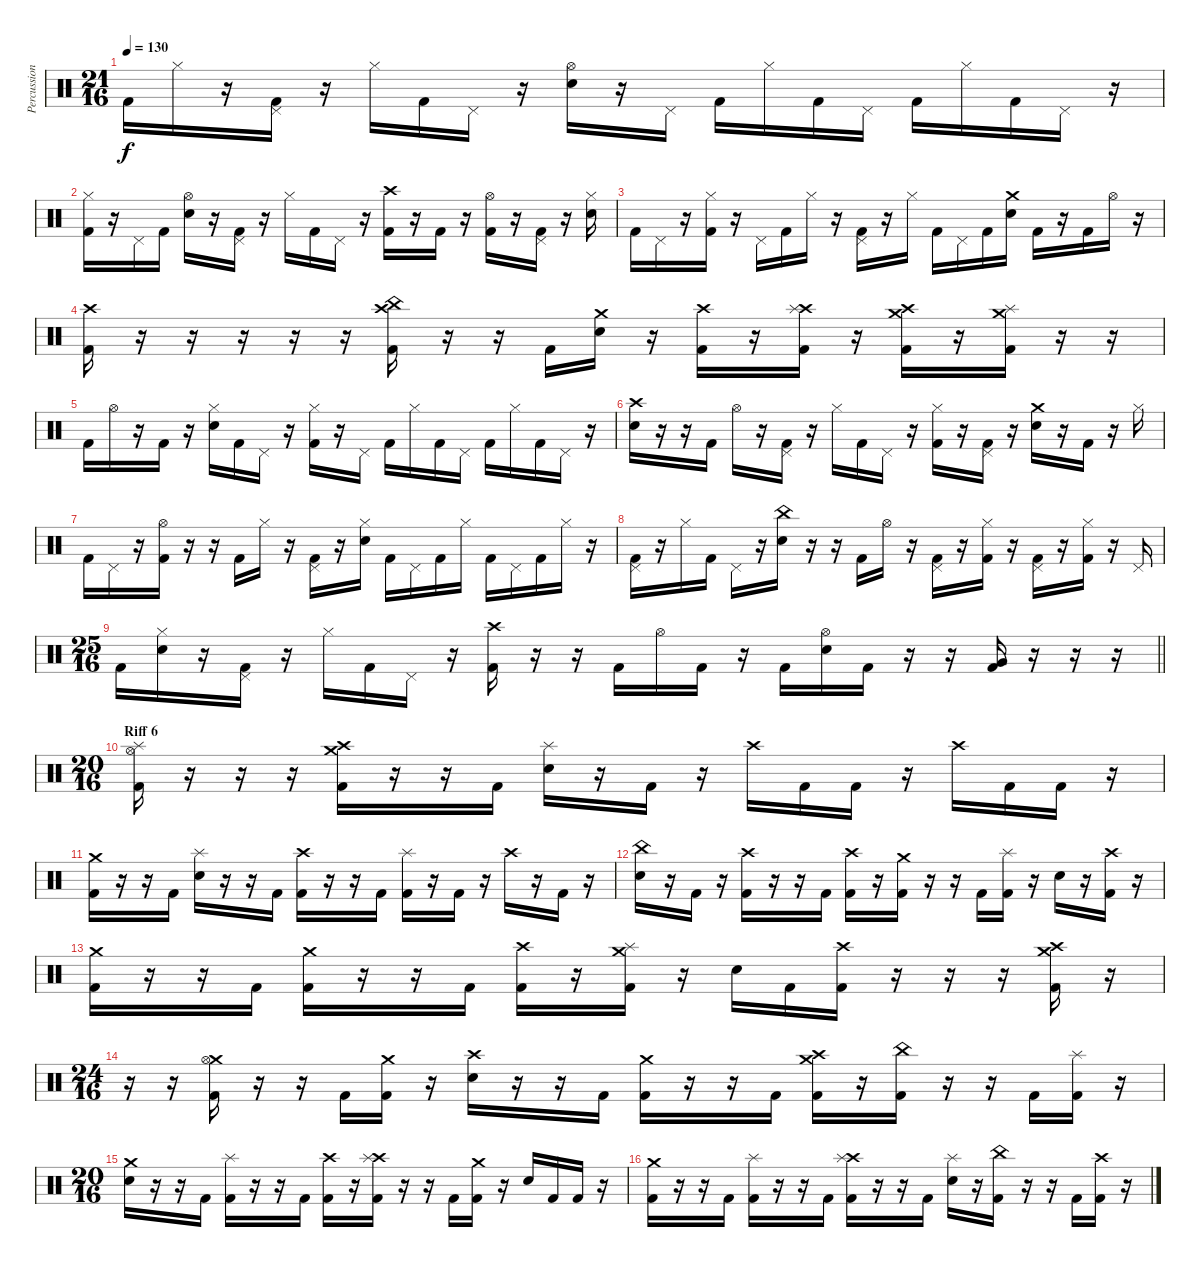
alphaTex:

\track ("Percussions" "Percussion") {instrument percussion}
\staff {score}
\articulation defaults
\ts (21 16)
\tempo 130
\clef neutral
\ks c "Kick (hit) 2".16{dy f} "Hi-Hat (closed)".16
r.16 ("Pedal Hi-Hat (hit)" "Kick (hit) 2").16 r.16 "Hi-Hat (closed)".16 "Kick (hit) 2".16 "Pedal Hi-Hat (hit)".16 r.16 ("Hi-Hat (open)" "Electric Snare (hit)").16 r.16 "Pedal Hi-Hat (hit)".16 "Kick (hit) 2".16 "Hi-Hat (closed)".16 "Kick (hit) 2".16 "Pedal Hi-Hat (hit)".16 "Kick (hit) 2".16 "Hi-Hat (closed)".16 "Kick (hit) 2".16 "Pedal Hi-Hat (hit)".16 r.16 |
("Hi-Hat (closed)" "Kick (hit) 2").16 r.16 "Pedal Hi-Hat (hit)".16 "Kick (hit) 2".16 ("Hi-Hat (open)" "Electric Snare (hit)").16 r.16 ("Pedal Hi-Hat (hit)" "Kick (hit) 2").16 r.16 "Hi-Hat (closed)".16 "Kick (hit) 2".16 "Pedal Hi-Hat (hit)".16 r.16 ("Crash high (hit)" "Kick (hit) 2").16 r.16 "Kick (hit) 2".16 r.16 ("Hi-Hat (open)" "Kick (hit) 2").16 r.16 ("Pedal Hi-Hat (hit)" "Kick (hit) 2").16 r.16 ("Hi-Hat (closed)" "Electric Snare (hit)").16 |
"Kick (hit) 2".16 "Pedal Hi-Hat (hit)".16 r.16 ("Hi-Hat (closed)" "Kick (hit) 2").16 r.16 "Pedal Hi-Hat (hit)".16 "Kick (hit) 2".16 "Hi-Hat (closed)".16 r.16 ("Pedal Hi-Hat (hit)" "Kick (hit) 2").16 r.16 "Hi-Hat (closed)".16 "Kick (hit) 2".16 "Pedal Hi-Hat (hit)".16 "Kick (hit) 2".16 ("Crash medium (hit)" "Electric Snare (hit)").16 "Kick (hit) 2".16 r.16 "Kick (hit) 2".16 "Hi-Hat (open)".16 r.16 |
("Crash high (hit)" "Kick (hit) 2").16 r.16 r.16 r.16 r.16 r.16 ("Crash high (hit)" "China (hit)" "Kick (hit) 2").16 r.16 r.16 "Kick (hit) 2".16 ("Crash medium (hit)" "Electric Snare (hit)").16 r.16 ("Crash high (hit)" "Kick (hit) 2").16 r.16 ("Crash high (hit)" "Splash (hit)" "Kick (hit) 2").16 r.16 ("Crash high (hit)" "Crash medium (hit)" "Kick (hit) 2").16 r.16 ("Crash medium (hit)" "Splash (hit)" "Kick (hit) 2").16 r.16 r.16 |
"Kick (hit) 2".16 "Hi-Hat (open)".16 r.16 "Kick (hit) 2".16 r.16 ("Hi-Hat (closed)" "Electric Snare (hit)").16 "Kick (hit) 2".16 "Pedal Hi-Hat (hit)".16 r.16 ("Hi-Hat (closed)" "Kick (hit) 2").16 r.16 "Pedal Hi-Hat (hit)".16 "Kick (hit) 2".16 "Hi-Hat (closed)".16 "Kick (hit) 2".16 "Pedal Hi-Hat (hit)".16 "Kick (hit) 2".16 "Hi-Hat (closed)".16 "Kick (hit) 2".16 "Pedal Hi-Hat (hit)".16 r.16 |
("Crash high (hit)" "Electric Snare (hit)").16 r.16 r.16 "Kick (hit) 2".16 "Hi-Hat (open)".16 r.16 ("Pedal Hi-Hat (hit)" "Kick (hit) 2").16 r.16 "Hi-Hat (closed)".16 "Kick (hit) 2".16 "Pedal Hi-Hat (hit)".16 r.16 ("Hi-Hat (closed)" "Kick (hit) 2").16 r.16 ("Pedal Hi-Hat (hit)" "Kick (hit) 2").16 r.16 ("Crash medium (hit)" "Electric Snare (hit)").16 r.16 "Kick (hit) 2".16 r.16 "Hi-Hat (closed)".16 |
"Kick (hit) 2".16 "Pedal Hi-Hat (hit)".16 r.16 ("Hi-Hat (open)" "Kick (hit) 2").16 r.16 r.16 "Kick (hit) 2".16 "Hi-Hat (closed)".16 r.16 ("Pedal Hi-Hat (hit)" "Kick (hit) 2").16 r.16 ("Hi-Hat (closed)" "Electric Snare (hit)").16 "Kick (hit) 2".16 "Pedal Hi-Hat (hit)".16 "Kick (hit) 2".16 "Hi-Hat (closed)".16 "Kick (hit) 2".16 "Pedal Hi-Hat (hit)".16 "Kick (hit) 2".16 "Hi-Hat (closed)".16 r.16 |
("Pedal Hi-Hat (hit)" "Kick (hit) 2").16 r.16 "Hi-Hat (closed)".16 "Kick (hit) 2".16 "Pedal Hi-Hat (hit)".16 r.16 ("China (hit)" "Electric Snare (hit)").16 r.16 r.16 "Kick (hit) 2".16 "Hi-Hat (open)".16 r.16 ("Pedal Hi-Hat (hit)" "Kick (hit) 2").16 r.16 ("Hi-Hat (closed)" "Kick (hit) 2").16 r.16 ("Pedal Hi-Hat (hit)" "Kick (hit) 2").16 r.16 ("Hi-Hat (closed)" "Kick (hit) 2").16 r.16 "Pedal Hi-Hat (hit)".16 |
\ts (25 16)
\barLineRight lightlight "Kick (hit) 2".16
("Hi-Hat (closed)" "Electric Snare (hit)").16 r.16 ("Pedal Hi-Hat (hit)" "Kick (hit) 2").16 r.16 "Hi-Hat (closed)".16 "Kick (hit) 2".16 "Pedal Hi-Hat (hit)".16 r.16 ("Crash high (hit)" "Kick (hit) 2").16 r.16 r.16 "Kick (hit) 2".16 "Hi-Hat (open)".16 "Kick (hit) 2".16 r.16 "Kick (hit) 2".16 ("Hi-Hat (open)" "Electric Snare (hit)").16 "Kick (hit) 2".16 r.16 r.16 ("Very Low Tom (hit)" "Kick (hit) 2").16 r.16 r.16 r.16 |
\ts (20 16)
\section ("" "Riff 6")
("Splash (hit)" "Hi-Hat (open)" "Kick (hit) 2").16 r.16 r.16 r.16 ("Crash high (hit)" "Crash medium (hit)" "Kick (hit) 2").16 r.16 r.16 "Kick (hit) 2".16 ("Splash (hit)" "Electric Snare (hit)").16 r.16 "Kick (hit) 2".16 r.16 "Crash high (hit)".16 "Kick (hit) 2".16 "Kick (hit) 2".16 r.16 "Crash high (hit)".16 "Kick (hit) 2".16 "Kick (hit) 2".16 r.16 |
("Crash medium (hit)" "Kick (hit) 2").16 r.16 r.16 "Kick (hit) 2".16 ("Splash (hit)" "Electric Snare (hit)").16 r.16 r.16 "Kick (hit) 2".16 ("Crash high (hit)" "Kick (hit) 2").16 r.16 r.16 "Kick (hit) 2".16 ("Splash (hit)" "Kick (hit) 2").16 r.16 "Kick (hit) 2".16 r.16 "Crash high (hit)".16 r.16 "Kick (hit) 2".16 r.16 |
("China (hit)" "Electric Snare (hit)").16 r.16 "Kick (hit) 2".16 r.16 ("Crash high (hit)" "Kick (hit) 2").16 r.16 r.16 "Kick (hit) 2".16 ("Crash high (hit)" "Kick (hit) 2").16 r.16 ("Crash medium (hit)" "Kick (hit) 2").16 r.16 r.16 "Kick (hit) 2".16 ("Splash (hit)" "Kick (hit) 2").16 r.16 "Electric Snare (hit)".16 r.16 ("Crash high (hit)" "Kick (hit) 2").16 r.16 |
("Crash medium (hit)" "Kick (hit) 2").16 r.16 r.16 "Kick (hit) 2".16 ("Crash medium (hit)" "Kick (hit) 2").16 r.16 r.16 "Kick (hit) 2".16 ("Crash high (hit)" "Kick (hit) 2").16 r.16 ("Crash medium (hit)" "Splash (hit)" "Kick (hit) 2").16 r.16 "Electric Snare (hit)".16 "Kick (hit) 2".16 ("Crash high (hit)" "Kick (hit) 2").16 r.16 r.16 r.16 ("Crash high (hit)" "Crash medium (hit)" "Kick (hit) 2").16 r.16 |
\ts (24 16)
r.16 r.16 ("Crash medium (hit)" "Hi-Hat (open)" "Kick (hit) 2").16 r.16 r.16 "Kick (hit) 2".16 ("Crash medium (hit)" "Kick (hit) 2").16 r.16 ("Crash high (hit)" "Electric Snare (hit)").16 r.16 r.16 "Kick (hit) 2".16 ("Crash medium (hit)" "Kick (hit) 2").16 r.16 r.16 "Kick (hit) 2".16 ("Crash medium (hit)" "Crash high (hit)" "Kick (hit) 2").16 r.16 ("China (hit)" "Kick (hit) 2").16 r.16 r.16 "Kick (hit) 2".16 ("Splash (hit)" "Kick (hit) 2").16 r.16 |
\ts (20 16)
("Crash medium (hit)" "Electric Snare (hit)").16 r.16 r.16 "Kick (hit) 2".16 ("Splash (hit)" "Kick (hit) 2").16 r.16 r.16 "Kick (hit) 2".16 ("Crash high (hit)" "Kick (hit) 2").16 r.16 ("Crash high (hit)" "Splash (hit)" "Kick (hit) 2").16 r.16 r.16 "Kick (hit) 2".16 ("Crash medium (hit)" "Kick (hit) 2").16 r.16 "Electric Snare (hit)".16 "Kick (hit) 2".16 "Kick (hit) 2".16 r.16 |
("Crash medium (hit)" "Kick (hit) 2").16 r.16 r.16 "Kick (hit) 2".16 ("Splash (hit)" "Kick (hit) 2").16 r.16 r.16 "Kick (hit) 2".16 ("Crash high (hit)" "Splash (hit)" "Kick (hit) 2").16 r.16 r.16 "Kick (hit) 2".16 ("Splash (hit)" "Electric Snare (hit)").16 r.16 ("China (hit)" "Kick (hit) 2").16 r.16 r.16 "Kick (hit) 2".16 ("Crash high (hit)" "Kick (hit) 2").16 r.16
